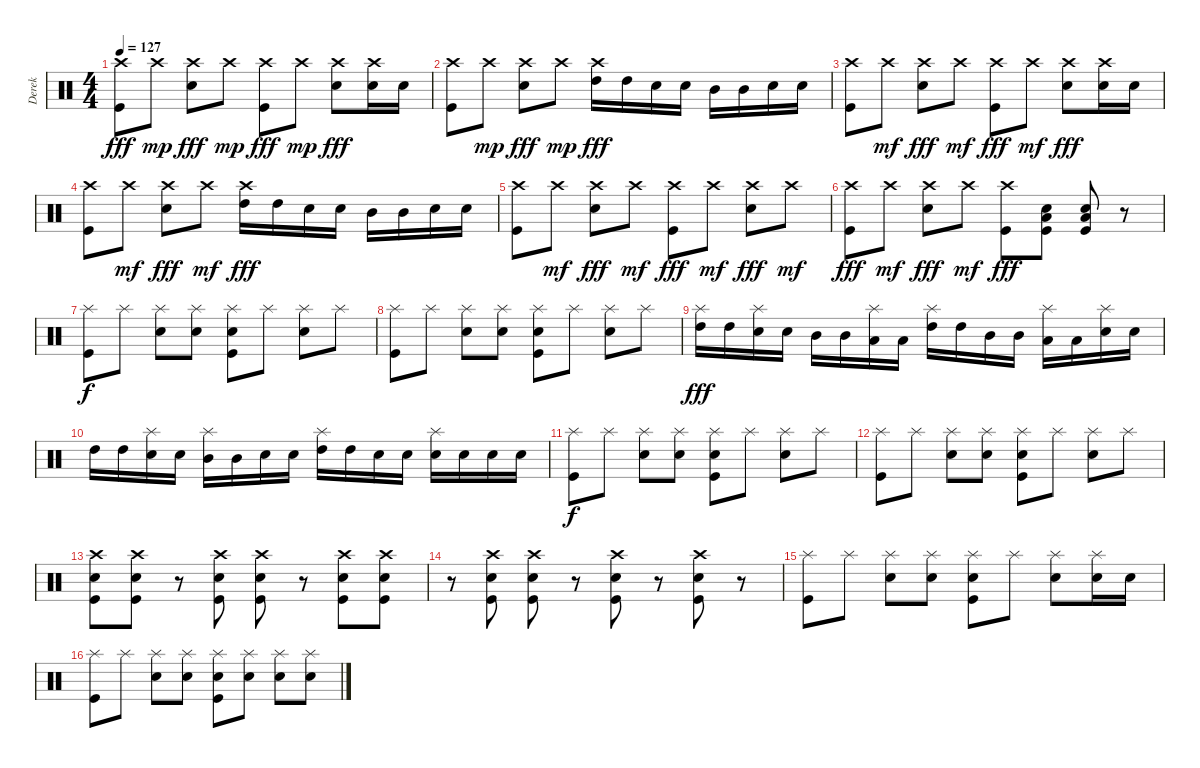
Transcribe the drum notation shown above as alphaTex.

\track ("Derek" "Derek") {instrument percussion}
\staff {score}
\articulation defaults
\ts (4 4)
\tempo 127
\clef neutral
\ks c
("Crash high (hit)" "Kick (hit)").8{dy fff} "Crash high (hit)".8{dy mp} ("Crash high (hit)" "Snare (hit) 2").8{dy fff} "Crash high (hit)".8{dy mp} ("Crash high (hit)" "Kick (hit)").8{dy fff} "Crash high (hit)".8{dy mp} ("Crash high (hit)" "Snare (hit) 2").8{dy fff} ("Crash high (hit)" "Snare (hit) 2").16 "Snare (hit) 2".16 |
("Crash high (hit)" "Kick (hit)").8 "Crash high (hit)".8{dy mp} ("Crash high (hit)" "Snare (hit) 2").8{dy fff} "Crash high (hit)".8{dy mp} ("Crash high (hit)" "High Tom (hit)").16{dy fff} "High Tom (hit)".16 "Snare (hit) 2".16 "Snare (hit) 2".16 "Mid Tom (hit)".16 "Mid Tom (hit)".16 "Snare (hit) 2".16 "Snare (hit) 2".16 |
("Crash high (hit)" "Kick (hit)").8 "Crash high (hit)".8{dy mf} ("Crash high (hit)" "Snare (hit) 2").8{dy fff} "Crash high (hit)".8{dy mf} ("Crash high (hit)" "Kick (hit)").8{dy fff} "Crash high (hit)".8{dy mf} ("Crash high (hit)" "Snare (hit) 2").8{dy fff} ("Crash high (hit)" "Snare (hit) 2").16 "Snare (hit) 2".16 |
("Crash high (hit)" "Kick (hit)").8 "Crash high (hit)".8{dy mf} ("Crash high (hit)" "Snare (hit) 2").8{dy fff} "Crash high (hit)".8{dy mf} ("Crash high (hit)" "High Tom (hit)").16{dy fff} "High Tom (hit)".16 "Snare (hit) 2".16 "Snare (hit) 2".16 "Mid Tom (hit)".16 "Mid Tom (hit)".16 "Snare (hit) 2".16 "Snare (hit) 2".16 |
("Crash high (hit)" "Kick (hit)").8 "Crash high (hit)".8{dy mf} ("Crash high (hit)" "Snare (hit) 2").8{dy fff} "Crash high (hit)".8{dy mf} ("Crash high (hit)" "Kick (hit)").8{dy fff} "Crash high (hit)".8{dy mf} ("Crash high (hit)" "Snare (hit) 2").8{dy fff} "Crash high (hit)".8{dy mf} |
("Crash high (hit)" "Kick (hit)").8{dy fff} "Crash high (hit)".8{dy mf} ("Crash high (hit)" "Snare (hit) 2").8{dy fff} "Crash high (hit)".8{dy mf} ("Crash high (hit)" "Kick (hit)").8{dy fff} ("Snare (hit) 2" "Low Floor Tom (hit)" "Kick (hit)").8 ("Snare (hit) 2" "Low Floor Tom (hit)" "Kick (hit)").8 r.8 |
("Splash (hit)" "Kick (hit)").8{dy f} "Splash (hit)".8 ("Splash (hit)" "Snare (hit) 2").8 ("Splash (hit)" "Snare (hit) 2").8 ("Splash (hit)" "Snare (hit) 2" "Kick (hit)").8 "Splash (hit)".8 ("Splash (hit)" "Snare (hit) 2").8 "Splash (hit)".8 |
("Splash (hit)" "Kick (hit)").8 "Splash (hit)".8 ("Splash (hit)" "Snare (hit) 2").8 ("Splash (hit)" "Snare (hit) 2").8 ("Splash (hit)" "Snare (hit) 2" "Kick (hit)").8 "Splash (hit)".8 ("Splash (hit)" "Snare (hit) 2").8 "Splash (hit)".8 |
("Splash (hit)" "High Tom (hit)").16{dy fff} "High Tom (hit)".16 ("Splash (hit)" "Snare (hit) 2").16 "Snare (hit) 2".16 "Mid Tom (hit)".16 "Mid Tom (hit)".16 ("Splash (hit)" "Low Floor Tom (hit)").16 "Low Floor Tom (hit)".16 ("Splash (hit)" "High Tom (hit)").16 "High Tom (hit)".16 "Mid Tom (hit)".16 "Mid Tom (hit)".16 ("Splash (hit)" "Low Floor Tom (hit)").16 "Low Floor Tom (hit)".16 ("Splash (hit)" "Snare (hit) 2").16 "Snare (hit) 2".16 |
"High Tom (hit)".16 "High Tom (hit)".16 ("Splash (hit)" "Snare (hit) 2").16 "Snare (hit) 2".16 ("Splash (hit)" "Mid Tom (hit)").16 "Mid Tom (hit)".16 "Snare (hit) 2".16 "Snare (hit) 2".16 ("Splash (hit)" "High Tom (hit)").16 "High Tom (hit)".16 "Snare (hit) 2".16 "Snare (hit) 2".16 ("Splash (hit)" "Snare (hit) 2").16 "Snare (hit) 2".16 "Snare (hit) 2".16 "Snare (hit) 2".16 |
("Splash (hit)" "Kick (hit)").8{dy f} "Splash (hit)".8 ("Splash (hit)" "Snare (hit) 2").8 ("Splash (hit)" "Snare (hit) 2").8 ("Splash (hit)" "Snare (hit) 2" "Kick (hit)").8 "Splash (hit)".8 ("Splash (hit)" "Snare (hit) 2").8 "Splash (hit)".8 |
("Splash (hit)" "Kick (hit)").8 "Splash (hit)".8 ("Splash (hit)" "Snare (hit) 2").8 ("Splash (hit)" "Snare (hit) 2").8 ("Splash (hit)" "Snare (hit) 2" "Kick (hit)").8 "Splash (hit)".8 ("Splash (hit)" "Snare (hit) 2").8 "Splash (hit)".8 |
("Crash high (hit)" "Snare (hit) 2" "Kick (hit)").8 ("Crash high (hit)" "Snare (hit) 2" "Kick (hit)").8 r.8 ("Crash high (hit)" "Snare (hit) 2" "Kick (hit)").8 ("Crash high (hit)" "Snare (hit) 2" "Kick (hit)").8 r.8 ("Crash high (hit)" "Snare (hit) 2" "Kick (hit)").8 ("Crash high (hit)" "Snare (hit) 2" "Kick (hit)").8 |
r.8 ("Crash high (hit)" "Snare (hit) 2" "Kick (hit)").8 ("Crash high (hit)" "Snare (hit) 2" "Kick (hit)").8 r.8 ("Crash high (hit)" "Snare (hit) 2" "Kick (hit)").8 r.8 ("Crash high (hit)" "Snare (hit) 2" "Kick (hit)").8 r.8 |
("Splash (hit)" "Kick (hit)").8 "Splash (hit)".8 ("Splash (hit)" "Snare (hit) 2").8 ("Splash (hit)" "Snare (hit) 2").8 ("Splash (hit)" "Snare (hit) 2" "Kick (hit)").8 "Splash (hit)".8 ("Splash (hit)" "Snare (hit) 2").8 ("Splash (hit)" "Snare (hit) 2").16 "Snare (hit) 2".16 |
("Splash (hit)" "Kick (hit)").8 "Splash (hit)".8 ("Splash (hit)" "Snare (hit) 2").8 ("Splash (hit)" "Snare (hit) 2").8 ("Splash (hit)" "Snare (hit) 2" "Kick (hit)").8 ("Splash (hit)" "Snare (hit) 2").8 ("Splash (hit)" "Snare (hit) 2").8 ("Splash (hit)" "Snare (hit) 2").8
